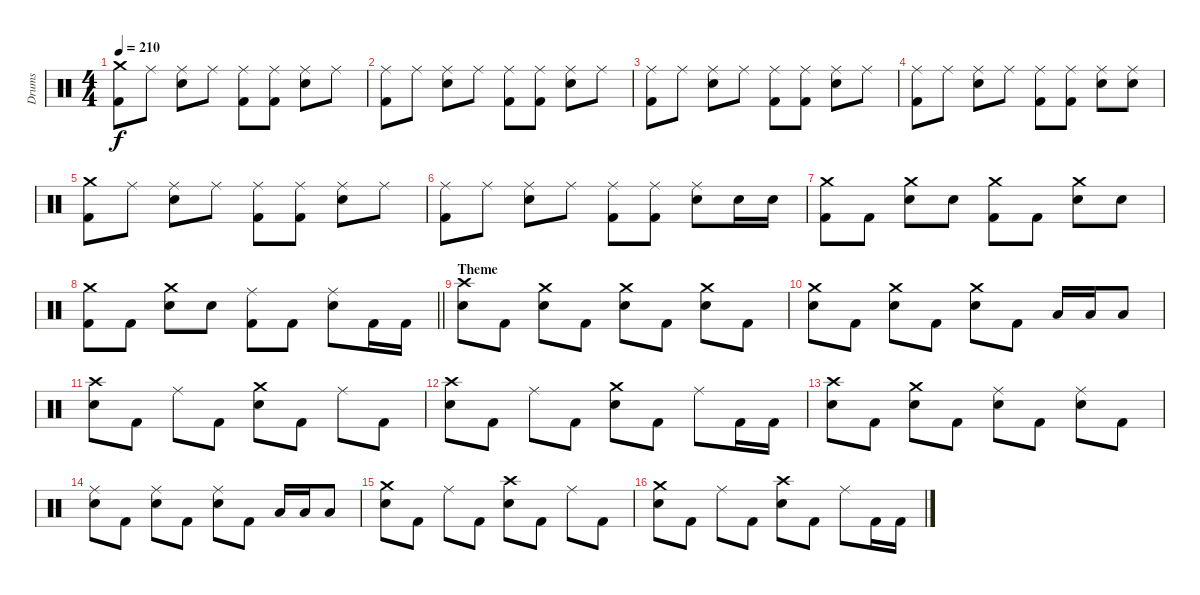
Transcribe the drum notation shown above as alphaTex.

\track ("Drums" "Drums") {instrument percussion}
\staff {score}
\articulation defaults
\ts (4 4)
\tempo 210
\clef neutral
\ks c
("Crash medium (hit)" "Kick (hit) 2").8{dy f} "Ride (middle)".8 ("Ride (middle)" "Electric Snare (hit)").8 "Ride (middle)".8 ("Ride (middle)" "Kick (hit) 2").8 ("Ride (middle)" "Kick (hit) 2").8 ("Ride (middle)" "Electric Snare (hit)").8 "Ride (middle)".8 |
("Ride (middle)" "Kick (hit) 2").8 "Ride (middle)".8 ("Ride (middle)" "Electric Snare (hit)").8 "Ride (middle)".8 ("Ride (middle)" "Kick (hit) 2").8 ("Ride (middle)" "Kick (hit) 2").8 ("Ride (middle)" "Electric Snare (hit)").8 "Ride (middle)".8 |
("Ride (middle)" "Kick (hit) 2").8 "Ride (middle)".8 ("Ride (middle)" "Electric Snare (hit)").8 "Ride (middle)".8 ("Ride (middle)" "Kick (hit) 2").8 ("Ride (middle)" "Kick (hit) 2").8 ("Ride (middle)" "Electric Snare (hit)").8 "Ride (middle)".8 |
("Ride (middle)" "Kick (hit) 2").8 "Ride (middle)".8 ("Ride (middle)" "Electric Snare (hit)").8 "Ride (middle)".8 ("Ride (middle)" "Kick (hit) 2").8 ("Ride (middle)" "Kick (hit) 2").8 ("Ride (middle)" "Electric Snare (hit)").8 ("Ride (middle)" "Electric Snare (hit)").8 |
("Crash medium (hit)" "Kick (hit) 2").8 "Ride (middle)".8 ("Ride (middle)" "Electric Snare (hit)").8 "Ride (middle)".8 ("Ride (middle)" "Kick (hit) 2").8 ("Ride (middle)" "Kick (hit) 2").8 ("Ride (middle)" "Electric Snare (hit)").8 "Ride (middle)".8 |
("Ride (middle)" "Kick (hit) 2").8 "Ride (middle)".8 ("Ride (middle)" "Electric Snare (hit)").8 "Ride (middle)".8 ("Ride (middle)" "Kick (hit) 2").8 ("Ride (middle)" "Kick (hit) 2").8 ("Ride (middle)" "Electric Snare (hit)").8 "Electric Snare (hit)".16 "Electric Snare (hit)".16 |
("Crash medium (hit)" "Kick (hit) 2").8 "Kick (hit) 2".8 ("Crash medium (hit)" "Electric Snare (hit)").8 "Electric Snare (hit)".8 ("Crash medium (hit)" "Kick (hit) 2").8 "Kick (hit) 2".8 ("Crash medium (hit)" "Electric Snare (hit)").8 "Electric Snare (hit)".8 |
\barLineRight lightlight
("Crash medium (hit)" "Kick (hit) 2").8 "Kick (hit) 2".8 ("Crash medium (hit)" "Electric Snare (hit)").8 "Electric Snare (hit)".8 ("Ride (middle)" "Kick (hit) 2").8 "Kick (hit) 2".8 ("Ride (middle)" "Electric Snare (hit)").8 "Kick (hit) 2".16 "Kick (hit) 2".16 |
\section ("" "Theme")
("Crash high (hit)" "Electric Snare (hit)").8 "Kick (hit) 2".8 ("Crash medium (hit)" "Electric Snare (hit)").8 "Kick (hit) 2".8 ("Crash medium (hit)" "Electric Snare (hit)").8 "Kick (hit) 2".8 ("Crash medium (hit)" "Electric Snare (hit)").8 "Kick (hit) 2".8 |
("Crash medium (hit)" "Electric Snare (hit)").8 "Kick (hit) 2".8 ("Crash medium (hit)" "Electric Snare (hit)").8 "Kick (hit) 2".8 ("Crash medium (hit)" "Electric Snare (hit)").8 "Kick (hit) 2".8 "Low Tom (hit)".16 "Low Tom (hit)".16 "Low Tom (hit)".8 |
("Crash high (hit)" "Electric Snare (hit)").8 "Kick (hit) 2".8 "Ride (middle)".8 "Kick (hit) 2".8 ("Crash medium (hit)" "Electric Snare (hit)").8 "Kick (hit) 2".8 "Ride (middle)".8 "Kick (hit) 2".8 |
("Crash high (hit)" "Electric Snare (hit)").8 "Kick (hit) 2".8 "Ride (middle)".8 "Kick (hit) 2".8 ("Crash medium (hit)" "Electric Snare (hit)").8 "Kick (hit) 2".8 "Ride (middle)".8 "Kick (hit) 2".16 "Kick (hit) 2".16 |
("Crash high (hit)" "Electric Snare (hit)").8 "Kick (hit) 2".8 ("Crash medium (hit)" "Electric Snare (hit)").8 "Kick (hit) 2".8 ("Ride (middle)" "Electric Snare (hit)").8 "Kick (hit) 2".8 ("Ride (middle)" "Electric Snare (hit)").8 "Kick (hit) 2".8 |
("Ride (middle)" "Electric Snare (hit)").8 "Kick (hit) 2".8 ("Ride (middle)" "Electric Snare (hit)").8 "Kick (hit) 2".8 ("Ride (middle)" "Electric Snare (hit)").8 "Kick (hit) 2".8 "Low Floor Tom (hit)".16 "Low Floor Tom (hit)".16 "Low Floor Tom (hit)".8 |
("Crash medium (hit)" "Electric Snare (hit)").8 "Kick (hit) 2".8 "Ride (middle)".8 "Kick (hit) 2".8 ("Crash high (hit)" "Electric Snare (hit)").8 "Kick (hit) 2".8 "Ride (middle)".8 "Kick (hit) 2".8 |
("Crash medium (hit)" "Electric Snare (hit)").8 "Kick (hit) 2".8 "Ride (middle)".8 "Kick (hit) 2".8 ("Crash high (hit)" "Electric Snare (hit)").8 "Kick (hit) 2".8 "Ride (middle)".8 "Kick (hit) 2".16 "Kick (hit) 2".16
